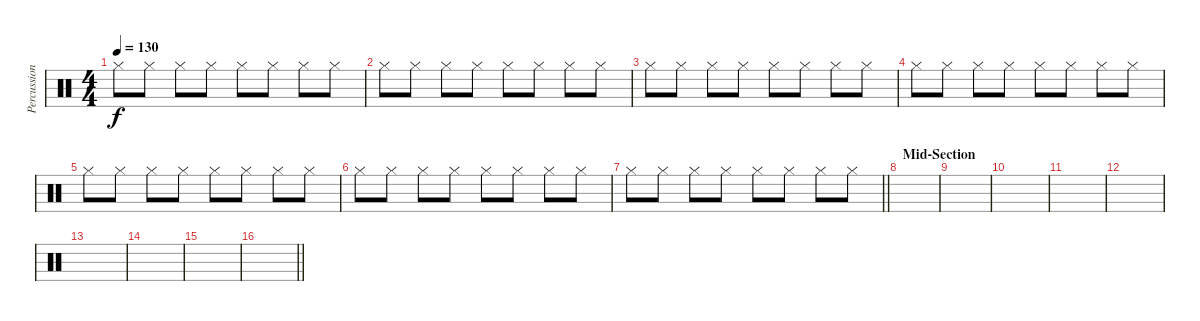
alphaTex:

\track ("Percussion" "Percussion") {instrument percussion}
\staff {score}
\articulation defaults
\ts (4 4)
\tempo 130
\clef neutral
\ks c "Hi-Hat (closed)".8{dy f} "Hi-Hat (closed)".8 "Hi-Hat (closed)".8 "Hi-Hat (closed)".8 "Hi-Hat (closed)".8 "Hi-Hat (closed)".8 "Hi-Hat (closed)".8 "Hi-Hat (closed)".8
|
"Hi-Hat (closed)".8 "Hi-Hat (closed)".8 "Hi-Hat (closed)".8 "Hi-Hat (closed)".8 "Hi-Hat (closed)".8 "Hi-Hat (closed)".8 "Hi-Hat (closed)".8 "Hi-Hat (closed)".8 |
"Hi-Hat (closed)".8 "Hi-Hat (closed)".8 "Hi-Hat (closed)".8 "Hi-Hat (closed)".8 "Hi-Hat (closed)".8 "Hi-Hat (closed)".8 "Hi-Hat (closed)".8 "Hi-Hat (closed)".8 |
"Hi-Hat (closed)".8 "Hi-Hat (closed)".8 "Hi-Hat (closed)".8 "Hi-Hat (closed)".8 "Hi-Hat (closed)".8 "Hi-Hat (closed)".8 "Hi-Hat (closed)".8 "Hi-Hat (closed)".8 |
"Hi-Hat (closed)".8 "Hi-Hat (closed)".8 "Hi-Hat (closed)".8 "Hi-Hat (closed)".8 "Hi-Hat (closed)".8 "Hi-Hat (closed)".8 "Hi-Hat (closed)".8 "Hi-Hat (closed)".8 |
"Hi-Hat (closed)".8 "Hi-Hat (closed)".8 "Hi-Hat (closed)".8 "Hi-Hat (closed)".8 "Hi-Hat (closed)".8 "Hi-Hat (closed)".8 "Hi-Hat (closed)".8 "Hi-Hat (closed)".8 |
\barLineRight lightlight "Hi-Hat (closed)".8 "Hi-Hat (closed)".8 "Hi-Hat (closed)".8 "Hi-Hat (closed)".8 "Hi-Hat (closed)".8 "Hi-Hat (closed)".8 "Hi-Hat (closed)".8 "Hi-Hat (closed)".8
|
\section ("" "Mid-Section")
|
|
|
|
|
|
|
|
\barLineRight lightlight
